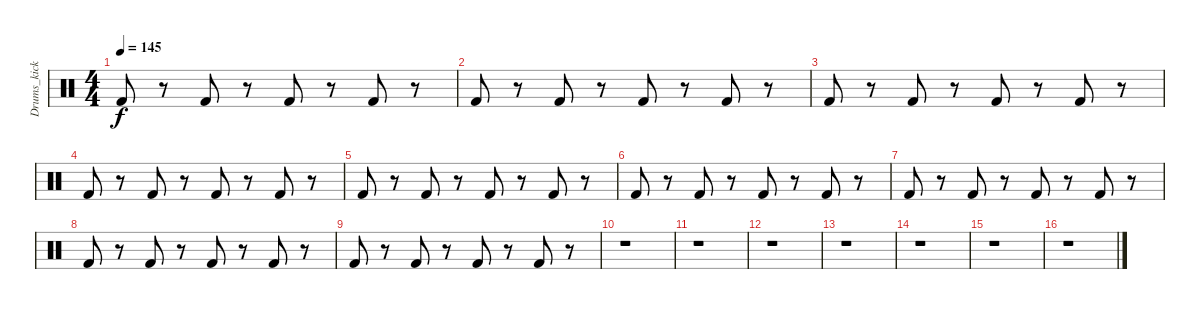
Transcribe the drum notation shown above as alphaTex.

\track ("Drums_kick" "Drums_kick") {instrument percussion}
\staff {score}
\articulation defaults
\ts (4 4)
\tempo 145
\clef neutral
\ks c "Kick (hit) 2".8{dy f}
r.8 "Kick (hit) 2".8 r.8 "Kick (hit) 2".8 r.8 "Kick (hit) 2".8 r.8 |
"Kick (hit) 2".8 r.8 "Kick (hit) 2".8 r.8 "Kick (hit) 2".8 r.8 "Kick (hit) 2".8 r.8 |
"Kick (hit) 2".8 r.8 "Kick (hit) 2".8 r.8 "Kick (hit) 2".8 r.8 "Kick (hit) 2".8 r.8 |
"Kick (hit) 2".8 r.8 "Kick (hit) 2".8 r.8 "Kick (hit) 2".8 r.8 "Kick (hit) 2".8 r.8 |
"Kick (hit) 2".8 r.8 "Kick (hit) 2".8 r.8 "Kick (hit) 2".8 r.8 "Kick (hit) 2".8 r.8 |
"Kick (hit) 2".8 r.8 "Kick (hit) 2".8 r.8 "Kick (hit) 2".8 r.8 "Kick (hit) 2".8 r.8 |
"Kick (hit) 2".8 r.8 "Kick (hit) 2".8 r.8 "Kick (hit) 2".8 r.8 "Kick (hit) 2".8 r.8 |
"Kick (hit) 2".8 r.8 "Kick (hit) 2".8 r.8 "Kick (hit) 2".8 r.8 "Kick (hit) 2".8 r.8 |
"Kick (hit) 2".8 r.8 "Kick (hit) 2".8 r.8 "Kick (hit) 2".8 r.8 "Kick (hit) 2".8 r.8 |
r.1 |
r.1 |
r.1 |
r.1 |
r.1 |
r.1 |
r.1
